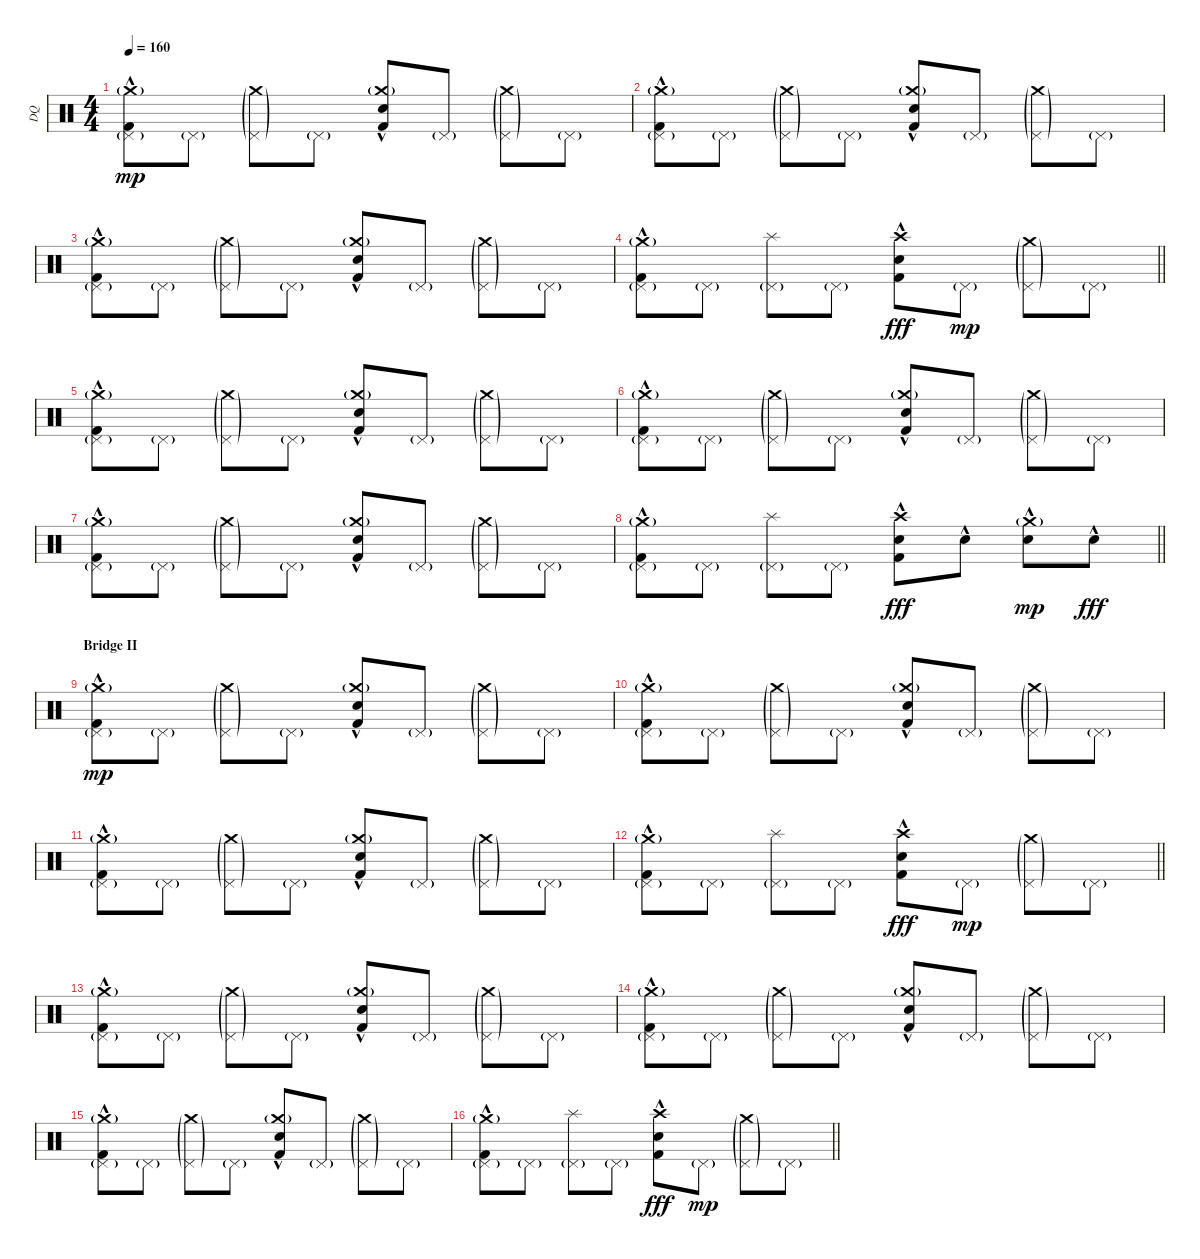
\track ("DQ" "DQ") {instrument percussion}
\staff {score}
\articulation defaults
\ts (4 4)
\section ("" "")
\tempo 160
\clef neutral
\ks c
("Kick (hit) 2"{hac} "Pedal Hi-Hat (hit)"{g} "Crash medium (hit)"{g}).8{dy mp} "Pedal Hi-Hat (hit)"{g}.8 ("Pedal Hi-Hat (hit)"{g} "Crash medium (hit)"{g}).8 "Pedal Hi-Hat (hit)"{g}.8 ("Kick (hit) 2" "Snare (hit) 2"{hac} "Crash medium (hit)"{g}).8 "Pedal Hi-Hat (hit)"{g}.8 ("Pedal Hi-Hat (hit)"{g} "Crash medium (hit)"{g}).8 "Pedal Hi-Hat (hit)"{g}.8 |
("Kick (hit) 2"{hac} "Pedal Hi-Hat (hit)"{g} "Crash medium (hit)"{g}).8 "Pedal Hi-Hat (hit)"{g}.8 ("Pedal Hi-Hat (hit)"{g} "Crash medium (hit)"{g}).8 "Pedal Hi-Hat (hit)"{g}.8 ("Kick (hit) 2" "Snare (hit) 2"{hac} "Crash medium (hit)"{g}).8 "Pedal Hi-Hat (hit)"{g}.8 ("Pedal Hi-Hat (hit)"{g} "Crash medium (hit)"{g}).8 "Pedal Hi-Hat (hit)"{g}.8 |
("Kick (hit) 2"{hac} "Pedal Hi-Hat (hit)"{g} "Crash medium (hit)"{g}).8 "Pedal Hi-Hat (hit)"{g}.8 ("Pedal Hi-Hat (hit)"{g} "Crash medium (hit)"{g}).8 "Pedal Hi-Hat (hit)"{g}.8 ("Kick (hit) 2" "Snare (hit) 2"{hac} "Crash medium (hit)"{g}).8 "Pedal Hi-Hat (hit)"{g}.8 ("Pedal Hi-Hat (hit)"{g} "Crash medium (hit)"{g}).8 "Pedal Hi-Hat (hit)"{g}.8 |
\barLineRight lightlight
("Kick (hit) 2"{hac} "Pedal Hi-Hat (hit)"{g} "Crash medium (hit)"{g}).8 "Pedal Hi-Hat (hit)"{g}.8 ("Pedal Hi-Hat (hit)"{g} "Splash (hit)").8 "Pedal Hi-Hat (hit)"{g}.8 ("Kick (hit) 2"{hac} "Snare (hit) 2"{hac} "Crash high (hit)").8{dy fff} "Pedal Hi-Hat (hit)"{g}.8{dy mp} ("Pedal Hi-Hat (hit)"{g} "Crash medium (hit)"{g}).8 "Pedal Hi-Hat (hit)"{g}.8 |
\section ("" "")
("Kick (hit) 2"{hac} "Pedal Hi-Hat (hit)"{g} "Crash medium (hit)"{g}).8 "Pedal Hi-Hat (hit)"{g}.8 ("Pedal Hi-Hat (hit)"{g} "Crash medium (hit)"{g}).8 "Pedal Hi-Hat (hit)"{g}.8 ("Kick (hit) 2" "Snare (hit) 2"{hac} "Crash medium (hit)"{g}).8 "Pedal Hi-Hat (hit)"{g}.8 ("Pedal Hi-Hat (hit)"{g} "Crash medium (hit)"{g}).8 "Pedal Hi-Hat (hit)"{g}.8 |
("Kick (hit) 2"{hac} "Pedal Hi-Hat (hit)"{g} "Crash medium (hit)"{g}).8 "Pedal Hi-Hat (hit)"{g}.8 ("Pedal Hi-Hat (hit)"{g} "Crash medium (hit)"{g}).8 "Pedal Hi-Hat (hit)"{g}.8 ("Kick (hit) 2" "Snare (hit) 2"{hac} "Crash medium (hit)"{g}).8 "Pedal Hi-Hat (hit)"{g}.8 ("Pedal Hi-Hat (hit)"{g} "Crash medium (hit)"{g}).8 "Pedal Hi-Hat (hit)"{g}.8 |
("Kick (hit) 2"{hac} "Pedal Hi-Hat (hit)"{g} "Crash medium (hit)"{g}).8 "Pedal Hi-Hat (hit)"{g}.8 ("Pedal Hi-Hat (hit)"{g} "Crash medium (hit)"{g}).8 "Pedal Hi-Hat (hit)"{g}.8 ("Kick (hit) 2" "Snare (hit) 2"{hac} "Crash medium (hit)"{g}).8 "Pedal Hi-Hat (hit)"{g}.8 ("Pedal Hi-Hat (hit)"{g} "Crash medium (hit)"{g}).8 "Pedal Hi-Hat (hit)"{g}.8 |
\barLineRight lightlight
("Kick (hit) 2"{hac} "Pedal Hi-Hat (hit)"{g} "Crash medium (hit)"{g}).8 "Pedal Hi-Hat (hit)"{g}.8 ("Pedal Hi-Hat (hit)"{g} "Splash (hit)").8 "Pedal Hi-Hat (hit)"{g}.8 ("Kick (hit) 2"{hac} "Snare (hit) 2"{hac} "Crash high (hit)").8{dy fff} "Snare (hit) 2"{hac}.8 ("Snare (hit) 2"{hac} "Crash medium (hit)"{g}).8{dy mp} "Snare (hit) 2"{hac}.8{dy fff} |
\section ("" "Bridge II")
("Kick (hit) 2"{hac} "Pedal Hi-Hat (hit)"{g} "Crash medium (hit)"{g}).8{dy mp} "Pedal Hi-Hat (hit)"{g}.8 ("Pedal Hi-Hat (hit)"{g} "Crash medium (hit)"{g}).8 "Pedal Hi-Hat (hit)"{g}.8 ("Kick (hit) 2" "Snare (hit) 2"{hac} "Crash medium (hit)"{g}).8 "Pedal Hi-Hat (hit)"{g}.8 ("Pedal Hi-Hat (hit)"{g} "Crash medium (hit)"{g}).8 "Pedal Hi-Hat (hit)"{g}.8 |
("Kick (hit) 2"{hac} "Pedal Hi-Hat (hit)"{g} "Crash medium (hit)"{g}).8 "Pedal Hi-Hat (hit)"{g}.8 ("Pedal Hi-Hat (hit)"{g} "Crash medium (hit)"{g}).8 "Pedal Hi-Hat (hit)"{g}.8 ("Kick (hit) 2" "Snare (hit) 2"{hac} "Crash medium (hit)"{g}).8 "Pedal Hi-Hat (hit)"{g}.8 ("Pedal Hi-Hat (hit)"{g} "Crash medium (hit)"{g}).8 "Pedal Hi-Hat (hit)"{g}.8 |
("Kick (hit) 2"{hac} "Pedal Hi-Hat (hit)"{g} "Crash medium (hit)"{g}).8 "Pedal Hi-Hat (hit)"{g}.8 ("Pedal Hi-Hat (hit)"{g} "Crash medium (hit)"{g}).8 "Pedal Hi-Hat (hit)"{g}.8 ("Kick (hit) 2" "Snare (hit) 2"{hac} "Crash medium (hit)"{g}).8 "Pedal Hi-Hat (hit)"{g}.8 ("Pedal Hi-Hat (hit)"{g} "Crash medium (hit)"{g}).8 "Pedal Hi-Hat (hit)"{g}.8 |
\barLineRight lightlight
("Kick (hit) 2"{hac} "Pedal Hi-Hat (hit)"{g} "Crash medium (hit)"{g}).8 "Pedal Hi-Hat (hit)"{g}.8 ("Pedal Hi-Hat (hit)"{g} "Splash (hit)").8 "Pedal Hi-Hat (hit)"{g}.8 ("Kick (hit) 2"{hac} "Snare (hit) 2"{hac} "Crash high (hit)").8{dy fff} "Pedal Hi-Hat (hit)"{g}.8{dy mp} ("Pedal Hi-Hat (hit)"{g} "Crash medium (hit)"{g}).8 "Pedal Hi-Hat (hit)"{g}.8 |
\section ("" "")
("Kick (hit) 2"{hac} "Pedal Hi-Hat (hit)"{g} "Crash medium (hit)"{g}).8 "Pedal Hi-Hat (hit)"{g}.8 ("Pedal Hi-Hat (hit)"{g} "Crash medium (hit)"{g}).8 "Pedal Hi-Hat (hit)"{g}.8 ("Kick (hit) 2" "Snare (hit) 2"{hac} "Crash medium (hit)"{g}).8 "Pedal Hi-Hat (hit)"{g}.8 ("Pedal Hi-Hat (hit)"{g} "Crash medium (hit)"{g}).8 "Pedal Hi-Hat (hit)"{g}.8 |
("Kick (hit) 2"{hac} "Pedal Hi-Hat (hit)"{g} "Crash medium (hit)"{g}).8 "Pedal Hi-Hat (hit)"{g}.8 ("Pedal Hi-Hat (hit)"{g} "Crash medium (hit)"{g}).8 "Pedal Hi-Hat (hit)"{g}.8 ("Kick (hit) 2" "Snare (hit) 2"{hac} "Crash medium (hit)"{g}).8 "Pedal Hi-Hat (hit)"{g}.8 ("Pedal Hi-Hat (hit)"{g} "Crash medium (hit)"{g}).8 "Pedal Hi-Hat (hit)"{g}.8 |
("Kick (hit) 2"{hac} "Pedal Hi-Hat (hit)"{g} "Crash medium (hit)"{g}).8 "Pedal Hi-Hat (hit)"{g}.8 ("Pedal Hi-Hat (hit)"{g} "Crash medium (hit)"{g}).8 "Pedal Hi-Hat (hit)"{g}.8 ("Kick (hit) 2" "Snare (hit) 2"{hac} "Crash medium (hit)"{g}).8 "Pedal Hi-Hat (hit)"{g}.8 ("Pedal Hi-Hat (hit)"{g} "Crash medium (hit)"{g}).8 "Pedal Hi-Hat (hit)"{g}.8 |
\barLineRight lightlight
("Kick (hit) 2"{hac} "Pedal Hi-Hat (hit)"{g} "Crash medium (hit)"{g}).8 "Pedal Hi-Hat (hit)"{g}.8 ("Pedal Hi-Hat (hit)"{g} "Splash (hit)").8 "Pedal Hi-Hat (hit)"{g}.8 ("Kick (hit) 2"{hac} "Snare (hit) 2"{hac} "Crash high (hit)").8{dy fff} "Pedal Hi-Hat (hit)"{g}.8{dy mp} ("Pedal Hi-Hat (hit)"{g} "Crash medium (hit)"{g}).8 "Pedal Hi-Hat (hit)"{g}.8
